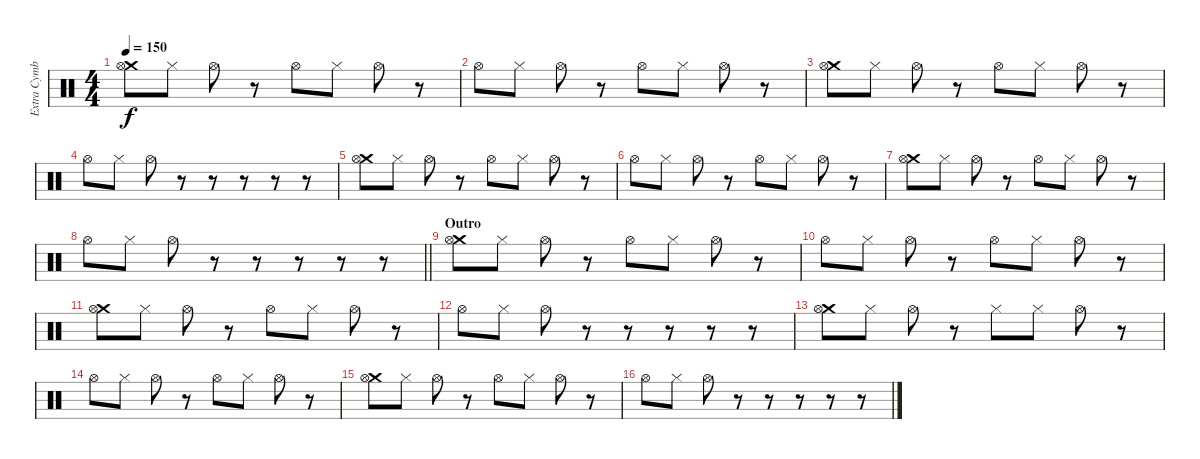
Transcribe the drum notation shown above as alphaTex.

\track ("Extra Cymbals" "Extra Cymb") {instrument percussion bank 255}
\staff {score}
\articulation defaults
\ts (4 4)
\tempo 150
\clef neutral
\ks c
("Crash medium (hit)" "Hi-Hat (open)").8{dy f} "Hi-Hat (closed)".8 "Hi-Hat (open)".8 r.8 "Hi-Hat (open)".8 "Hi-Hat (closed)".8 "Hi-Hat (open)".8 r.8 |
"Hi-Hat (open)".8 "Hi-Hat (closed)".8 "Hi-Hat (open)".8 r.8 "Hi-Hat (open)".8 "Hi-Hat (closed)".8 "Hi-Hat (open)".8 r.8 |
("Crash medium (hit)" "Hi-Hat (open)").8 "Hi-Hat (closed)".8 "Hi-Hat (open)".8 r.8 "Hi-Hat (open)".8 "Hi-Hat (closed)".8 "Hi-Hat (open)".8 r.8 |
"Hi-Hat (open)".8 "Hi-Hat (closed)".8 "Hi-Hat (open)".8 r.8 r.8 r.8 r.8 r.8 |
("Crash medium (hit)" "Hi-Hat (open)").8 "Hi-Hat (closed)".8 "Hi-Hat (open)".8 r.8 "Hi-Hat (open)".8 "Hi-Hat (closed)".8 "Hi-Hat (open)".8 r.8 |
"Hi-Hat (open)".8 "Hi-Hat (closed)".8 "Hi-Hat (open)".8 r.8 "Hi-Hat (open)".8 "Hi-Hat (closed)".8 "Hi-Hat (open)".8 r.8 |
("Crash medium (hit)" "Hi-Hat (open)").8 "Hi-Hat (closed)".8 "Hi-Hat (open)".8 r.8 "Hi-Hat (open)".8 "Hi-Hat (closed)".8 "Hi-Hat (open)".8 r.8 |
\barLineRight lightlight "Hi-Hat (open)".8 "Hi-Hat (closed)".8 "Hi-Hat (open)".8
r.8 r.8 r.8 r.8 r.8 |
\section ("" "Outro")
("Crash medium (hit)" "Hi-Hat (open)").8 "Hi-Hat (closed)".8 "Hi-Hat (open)".8 r.8 "Hi-Hat (open)".8 "Hi-Hat (closed)".8 "Hi-Hat (open)".8 r.8 |
"Hi-Hat (open)".8 "Hi-Hat (closed)".8 "Hi-Hat (open)".8 r.8 "Hi-Hat (open)".8 "Hi-Hat (closed)".8 "Hi-Hat (open)".8 r.8 |
("Crash medium (hit)" "Hi-Hat (open)").8 "Hi-Hat (closed)".8 "Hi-Hat (open)".8 r.8 "Hi-Hat (open)".8 "Hi-Hat (closed)".8 "Hi-Hat (open)".8 r.8 |
"Hi-Hat (open)".8 "Hi-Hat (closed)".8 "Hi-Hat (open)".8 r.8 r.8 r.8 r.8 r.8 |
("Crash medium (hit)" "Hi-Hat (open)").8 "Hi-Hat (closed)".8 "Hi-Hat (open)".8 r.8 "Hi-Hat (closed)".8 "Hi-Hat (closed)".8 "Hi-Hat (open)".8 r.8 |
"Hi-Hat (open)".8 "Hi-Hat (closed)".8 "Hi-Hat (open)".8 r.8 "Hi-Hat (open)".8 "Hi-Hat (closed)".8 "Hi-Hat (open)".8 r.8 |
("Crash medium (hit)" "Hi-Hat (open)").8 "Hi-Hat (closed)".8 "Hi-Hat (open)".8 r.8 "Hi-Hat (open)".8 "Hi-Hat (closed)".8 "Hi-Hat (open)".8 r.8 |
"Hi-Hat (open)".8 "Hi-Hat (closed)".8 "Hi-Hat (open)".8 r.8 r.8 r.8 r.8 r.8
